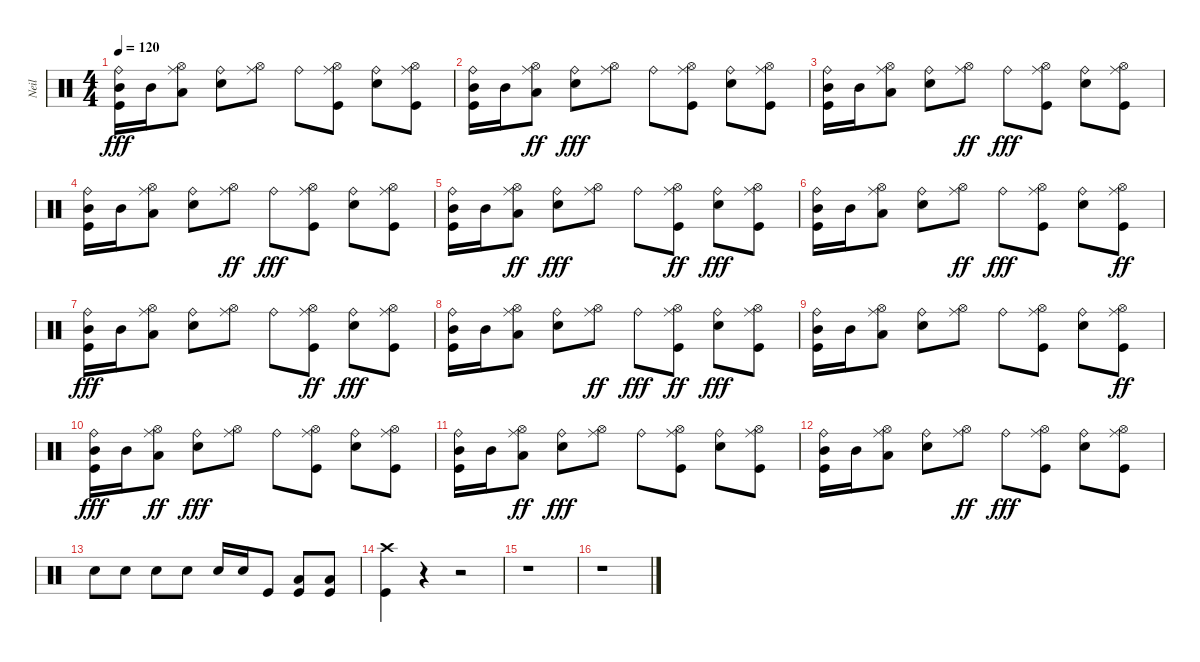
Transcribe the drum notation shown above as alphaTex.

\track ("Neil" "Neil") {instrument percussion}
\staff {score}
\articulation defaults
\ts (4 4)
\tempo 120
\clef neutral
\ks c
("Ride (bell)" "Kick (hit)" "Mid Tom (hit)").16{dy fff} "Mid Tom (hit)".16 ("Hi-Hat (open)" "Low Tom (hit)" "Ride (middle)").8 ("Ride (bell)" "Snare (hit) 2").8 ("Hi-Hat (open)" "Ride (middle)").8 "Ride (bell)".8 ("Hi-Hat (open)" "Ride (middle)" "Kick (hit)").8 ("Snare (hit) 2" "Ride (bell)").8 ("Hi-Hat (open)" "Kick (hit)" "Ride (middle)").8 |
("Ride (bell)" "Mid Tom (hit)" "Kick (hit)").16 "Mid Tom (hit)".16 ("Low Tom (hit)" "Ride (middle)" "Hi-Hat (open)").8{dy ff} ("Snare (hit) 2" "Ride (bell)").8{dy fff} ("Hi-Hat (open)" "Ride (middle)").8 "Ride (bell)".8 ("Ride (middle)" "Hi-Hat (open)" "Kick (hit)").8 ("Ride (bell)" "Snare (hit) 2").8 ("Hi-Hat (open)" "Kick (hit)" "Ride (middle)").8 |
("Kick (hit)" "Ride (bell)" "Mid Tom (hit)").16 "Mid Tom (hit)".16 ("Hi-Hat (open)" "Ride (middle)" "Low Tom (hit)").8 ("Snare (hit) 2" "Ride (bell)").8 ("Ride (middle)" "Hi-Hat (open)").8{dy ff} "Ride (bell)".8{dy fff} ("Hi-Hat (open)" "Kick (hit)" "Ride (middle)").8 ("Ride (bell)" "Snare (hit) 2").8 ("Kick (hit)" "Hi-Hat (open)" "Ride (middle)").8 |
("Kick (hit)" "Mid Tom (hit)" "Ride (bell)").16 "Mid Tom (hit)".16 ("Low Tom (hit)" "Hi-Hat (open)" "Ride (middle)").8 ("Ride (bell)" "Snare (hit) 2").8 ("Ride (middle)" "Hi-Hat (open)").8{dy ff} "Ride (bell)".8{dy fff} ("Kick (hit)" "Hi-Hat (open)" "Ride (middle)").8 ("Snare (hit) 2" "Ride (bell)").8 ("Hi-Hat (open)" "Kick (hit)" "Ride (middle)").8 |
("Mid Tom (hit)" "Ride (bell)" "Kick (hit)").16 "Mid Tom (hit)".16 ("Ride (middle)" "Low Tom (hit)" "Hi-Hat (open)").8{dy ff} ("Ride (bell)" "Snare (hit) 2").8{dy fff} ("Hi-Hat (open)" "Ride (middle)").8 "Ride (bell)".8 ("Kick (hit)" "Ride (middle)" "Hi-Hat (open)").8{dy ff} ("Ride (bell)" "Snare (hit) 2").8{dy fff} ("Hi-Hat (open)" "Ride (middle)" "Kick (hit)").8 |
("Ride (bell)" "Kick (hit)" "Mid Tom (hit)").16 "Mid Tom (hit)".16 ("Low Tom (hit)" "Hi-Hat (open)" "Ride (middle)").8 ("Ride (bell)" "Snare (hit) 2").8 ("Ride (middle)" "Hi-Hat (open)").8{dy ff} "Ride (bell)".8{dy fff} ("Kick (hit)" "Hi-Hat (open)" "Ride (middle)").8 ("Snare (hit) 2" "Ride (bell)").8 ("Kick (hit)" "Ride (middle)" "Hi-Hat (open)").8{dy ff} |
("Mid Tom (hit)" "Ride (bell)" "Kick (hit)").16{dy fff} "Mid Tom (hit)".16 ("Hi-Hat (open)" "Low Tom (hit)" "Ride (middle)").8 ("Ride (bell)" "Snare (hit) 2").8 ("Hi-Hat (open)" "Ride (middle)").8 "Ride (bell)".8 ("Kick (hit)" "Ride (middle)" "Hi-Hat (open)").8{dy ff} ("Ride (bell)" "Snare (hit) 2").8{dy fff} ("Ride (middle)" "Hi-Hat (open)" "Kick (hit)").8 |
("Kick (hit)" "Mid Tom (hit)" "Ride (bell)").16 "Mid Tom (hit)".16 ("Low Tom (hit)" "Hi-Hat (open)" "Ride (middle)").8 ("Ride (bell)" "Snare (hit) 2").8 ("Ride (middle)" "Hi-Hat (open)").8{dy ff} "Ride (bell)".8{dy fff} ("Ride (middle)" "Kick (hit)" "Hi-Hat (open)").8{dy ff} ("Snare (hit) 2" "Ride (bell)").8{dy fff} ("Kick (hit)" "Hi-Hat (open)" "Ride (middle)").8 |
("Ride (bell)" "Kick (hit)" "Mid Tom (hit)").16 "Mid Tom (hit)".16 ("Ride (middle)" "Hi-Hat (open)" "Low Tom (hit)").8 ("Ride (bell)" "Snare (hit) 2").8 ("Hi-Hat (open)" "Ride (middle)").8 "Ride (bell)".8 ("Kick (hit)" "Hi-Hat (open)" "Ride (middle)").8 ("Ride (bell)" "Snare (hit) 2").8 ("Ride (middle)" "Kick (hit)" "Hi-Hat (open)").8{dy ff} |
("Ride (bell)" "Kick (hit)" "Mid Tom (hit)").16{dy fff} "Mid Tom (hit)".16 ("Low Tom (hit)" "Ride (middle)" "Hi-Hat (open)").8{dy ff} ("Ride (bell)" "Snare (hit) 2").8{dy fff} ("Hi-Hat (open)" "Ride (middle)").8 "Ride (bell)".8 ("Ride (middle)" "Hi-Hat (open)" "Kick (hit)").8 ("Ride (bell)" "Snare (hit) 2").8 ("Ride (middle)" "Hi-Hat (open)" "Kick (hit)").8 |
("Kick (hit)" "Ride (bell)" "Mid Tom (hit)").16 "Mid Tom (hit)".16 ("Low Tom (hit)" "Ride (middle)" "Hi-Hat (open)").8{dy ff} ("Snare (hit) 2" "Ride (bell)").8{dy fff} ("Hi-Hat (open)" "Ride (middle)").8 "Ride (bell)".8 ("Kick (hit)" "Hi-Hat (open)" "Ride (middle)").8 ("Snare (hit) 2" "Ride (bell)").8 ("Hi-Hat (open)" "Ride (middle)" "Kick (hit)").8 |
("Mid Tom (hit)" "Ride (bell)" "Kick (hit)").16 "Mid Tom (hit)".16 ("Hi-Hat (open)" "Low Tom (hit)" "Ride (middle)").8 ("Snare (hit) 2" "Ride (bell)").8 ("Ride (middle)" "Hi-Hat (open)").8{dy ff} "Ride (bell)".8{dy fff} ("Hi-Hat (open)" "Ride (middle)" "Kick (hit)").8 ("Ride (bell)" "Snare (hit) 2").8 ("Hi-Hat (open)" "Kick (hit)" "Ride (middle)").8 |
"Snare (hit) 2".8 "Snare (hit) 2".8 "Snare (hit) 2".8 "Snare (hit) 2".8 "Snare (hit) 2".16 "Snare (hit) 2".16 "Kick (hit)".8 ("Kick (hit)" "Low Floor Tom (hit)").8 ("Kick (hit)" "Low Floor Tom (hit)").8 |
("Kick (hit)" "Crash high (hit)").4 r.4 r.2 |
r.1 |
r.1
